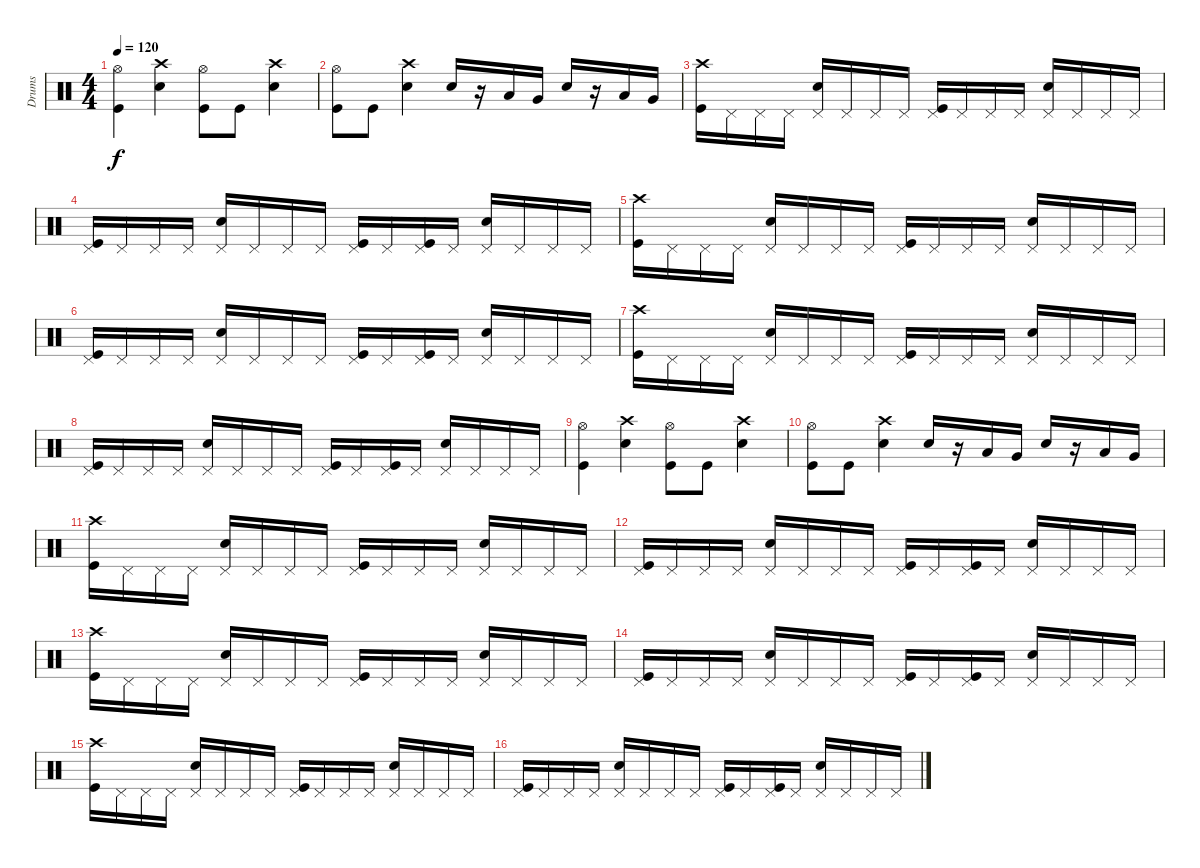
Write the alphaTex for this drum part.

\track ("Drums" "Drums") {instrument percussion}
\staff {score}
\articulation defaults
\ts (4 4)
\tempo 120
\clef neutral
\ks c
("Hi-Hat (open)" "Kick (hit)").4{dy f} ("Crash high (hit)" "Snare (hit) 2").4 ("Hi-Hat (open)" "Kick (hit)").8 "Kick (hit)".8 ("Crash high (hit)" "Snare (hit) 2").4 |
("Hi-Hat (open)" "Kick (hit)").8 "Kick (hit)".8 ("Crash high (hit)" "Snare (hit) 2").4 "Snare (hit) 2".16 r.16 "Low Tom (hit)".16 "Very Low Tom (hit)".16 "Snare (hit) 2".16 r.16 "Low Tom (hit)".16 "Very Low Tom (hit)".16 |
("Crash high (hit)" "Kick (hit)").16 "Pedal Hi-Hat (hit)".16 "Pedal Hi-Hat (hit)".16 "Pedal Hi-Hat (hit)".16 ("Pedal Hi-Hat (hit)" "Snare (hit) 2").16 "Pedal Hi-Hat (hit)".16 "Pedal Hi-Hat (hit)".16 "Pedal Hi-Hat (hit)".16 ("Pedal Hi-Hat (hit)" "Kick (hit)").16 "Pedal Hi-Hat (hit)".16 "Pedal Hi-Hat (hit)".16 "Pedal Hi-Hat (hit)".16 ("Pedal Hi-Hat (hit)" "Snare (hit) 2").16 "Pedal Hi-Hat (hit)".16 "Pedal Hi-Hat (hit)".16 "Pedal Hi-Hat (hit)".16 |
("Pedal Hi-Hat (hit)" "Kick (hit)").16 "Pedal Hi-Hat (hit)".16 "Pedal Hi-Hat (hit)".16 "Pedal Hi-Hat (hit)".16 ("Pedal Hi-Hat (hit)" "Snare (hit) 2").16 "Pedal Hi-Hat (hit)".16 "Pedal Hi-Hat (hit)".16 "Pedal Hi-Hat (hit)".16 ("Pedal Hi-Hat (hit)" "Kick (hit)").16 "Pedal Hi-Hat (hit)".16 ("Pedal Hi-Hat (hit)" "Kick (hit)").16 "Pedal Hi-Hat (hit)".16 ("Pedal Hi-Hat (hit)" "Snare (hit) 2").16 "Pedal Hi-Hat (hit)".16 "Pedal Hi-Hat (hit)".16 "Pedal Hi-Hat (hit)".16 |
("Crash high (hit)" "Kick (hit)").16 "Pedal Hi-Hat (hit)".16 "Pedal Hi-Hat (hit)".16 "Pedal Hi-Hat (hit)".16 ("Pedal Hi-Hat (hit)" "Snare (hit) 2").16 "Pedal Hi-Hat (hit)".16 "Pedal Hi-Hat (hit)".16 "Pedal Hi-Hat (hit)".16 ("Pedal Hi-Hat (hit)" "Kick (hit)").16 "Pedal Hi-Hat (hit)".16 "Pedal Hi-Hat (hit)".16 "Pedal Hi-Hat (hit)".16 ("Pedal Hi-Hat (hit)" "Snare (hit) 2").16 "Pedal Hi-Hat (hit)".16 "Pedal Hi-Hat (hit)".16 "Pedal Hi-Hat (hit)".16 |
("Pedal Hi-Hat (hit)" "Kick (hit)").16 "Pedal Hi-Hat (hit)".16 "Pedal Hi-Hat (hit)".16 "Pedal Hi-Hat (hit)".16 ("Pedal Hi-Hat (hit)" "Snare (hit) 2").16 "Pedal Hi-Hat (hit)".16 "Pedal Hi-Hat (hit)".16 "Pedal Hi-Hat (hit)".16 ("Pedal Hi-Hat (hit)" "Kick (hit)").16 "Pedal Hi-Hat (hit)".16 ("Pedal Hi-Hat (hit)" "Kick (hit)").16 "Pedal Hi-Hat (hit)".16 ("Pedal Hi-Hat (hit)" "Snare (hit) 2").16 "Pedal Hi-Hat (hit)".16 "Pedal Hi-Hat (hit)".16 "Pedal Hi-Hat (hit)".16 |
("Crash high (hit)" "Kick (hit)").16 "Pedal Hi-Hat (hit)".16 "Pedal Hi-Hat (hit)".16 "Pedal Hi-Hat (hit)".16 ("Pedal Hi-Hat (hit)" "Snare (hit) 2").16 "Pedal Hi-Hat (hit)".16 "Pedal Hi-Hat (hit)".16 "Pedal Hi-Hat (hit)".16 ("Pedal Hi-Hat (hit)" "Kick (hit)").16 "Pedal Hi-Hat (hit)".16 "Pedal Hi-Hat (hit)".16 "Pedal Hi-Hat (hit)".16 ("Pedal Hi-Hat (hit)" "Snare (hit) 2").16 "Pedal Hi-Hat (hit)".16 "Pedal Hi-Hat (hit)".16 "Pedal Hi-Hat (hit)".16 |
("Pedal Hi-Hat (hit)" "Kick (hit)").16 "Pedal Hi-Hat (hit)".16 "Pedal Hi-Hat (hit)".16 "Pedal Hi-Hat (hit)".16 ("Pedal Hi-Hat (hit)" "Snare (hit) 2").16 "Pedal Hi-Hat (hit)".16 "Pedal Hi-Hat (hit)".16 "Pedal Hi-Hat (hit)".16 ("Pedal Hi-Hat (hit)" "Kick (hit)").16 "Pedal Hi-Hat (hit)".16 ("Pedal Hi-Hat (hit)" "Kick (hit)").16 "Pedal Hi-Hat (hit)".16 ("Pedal Hi-Hat (hit)" "Snare (hit) 2").16 "Pedal Hi-Hat (hit)".16 "Pedal Hi-Hat (hit)".16 "Pedal Hi-Hat (hit)".16 |
("Hi-Hat (open)" "Kick (hit)").4 ("Crash high (hit)" "Snare (hit) 2").4 ("Hi-Hat (open)" "Kick (hit)").8 "Kick (hit)".8 ("Crash high (hit)" "Snare (hit) 2").4 |
("Hi-Hat (open)" "Kick (hit)").8 "Kick (hit)".8 ("Crash high (hit)" "Snare (hit) 2").4 "Snare (hit) 2".16 r.16 "Low Tom (hit)".16 "Very Low Tom (hit)".16 "Snare (hit) 2".16 r.16 "Low Tom (hit)".16 "Very Low Tom (hit)".16 |
("Crash high (hit)" "Kick (hit)").16 "Pedal Hi-Hat (hit)".16 "Pedal Hi-Hat (hit)".16 "Pedal Hi-Hat (hit)".16 ("Pedal Hi-Hat (hit)" "Snare (hit) 2").16 "Pedal Hi-Hat (hit)".16 "Pedal Hi-Hat (hit)".16 "Pedal Hi-Hat (hit)".16 ("Pedal Hi-Hat (hit)" "Kick (hit)").16 "Pedal Hi-Hat (hit)".16 "Pedal Hi-Hat (hit)".16 "Pedal Hi-Hat (hit)".16 ("Pedal Hi-Hat (hit)" "Snare (hit) 2").16 "Pedal Hi-Hat (hit)".16 "Pedal Hi-Hat (hit)".16 "Pedal Hi-Hat (hit)".16 |
("Pedal Hi-Hat (hit)" "Kick (hit)").16 "Pedal Hi-Hat (hit)".16 "Pedal Hi-Hat (hit)".16 "Pedal Hi-Hat (hit)".16 ("Pedal Hi-Hat (hit)" "Snare (hit) 2").16 "Pedal Hi-Hat (hit)".16 "Pedal Hi-Hat (hit)".16 "Pedal Hi-Hat (hit)".16 ("Pedal Hi-Hat (hit)" "Kick (hit)").16 "Pedal Hi-Hat (hit)".16 ("Pedal Hi-Hat (hit)" "Kick (hit)").16 "Pedal Hi-Hat (hit)".16 ("Pedal Hi-Hat (hit)" "Snare (hit) 2").16 "Pedal Hi-Hat (hit)".16 "Pedal Hi-Hat (hit)".16 "Pedal Hi-Hat (hit)".16 |
("Crash high (hit)" "Kick (hit)").16 "Pedal Hi-Hat (hit)".16 "Pedal Hi-Hat (hit)".16 "Pedal Hi-Hat (hit)".16 ("Pedal Hi-Hat (hit)" "Snare (hit) 2").16 "Pedal Hi-Hat (hit)".16 "Pedal Hi-Hat (hit)".16 "Pedal Hi-Hat (hit)".16 ("Pedal Hi-Hat (hit)" "Kick (hit)").16 "Pedal Hi-Hat (hit)".16 "Pedal Hi-Hat (hit)".16 "Pedal Hi-Hat (hit)".16 ("Pedal Hi-Hat (hit)" "Snare (hit) 2").16 "Pedal Hi-Hat (hit)".16 "Pedal Hi-Hat (hit)".16 "Pedal Hi-Hat (hit)".16 |
("Pedal Hi-Hat (hit)" "Kick (hit)").16 "Pedal Hi-Hat (hit)".16 "Pedal Hi-Hat (hit)".16 "Pedal Hi-Hat (hit)".16 ("Pedal Hi-Hat (hit)" "Snare (hit) 2").16 "Pedal Hi-Hat (hit)".16 "Pedal Hi-Hat (hit)".16 "Pedal Hi-Hat (hit)".16 ("Pedal Hi-Hat (hit)" "Kick (hit)").16 "Pedal Hi-Hat (hit)".16 ("Pedal Hi-Hat (hit)" "Kick (hit)").16 "Pedal Hi-Hat (hit)".16 ("Pedal Hi-Hat (hit)" "Snare (hit) 2").16 "Pedal Hi-Hat (hit)".16 "Pedal Hi-Hat (hit)".16 "Pedal Hi-Hat (hit)".16 |
("Crash high (hit)" "Kick (hit)").16 "Pedal Hi-Hat (hit)".16 "Pedal Hi-Hat (hit)".16 "Pedal Hi-Hat (hit)".16 ("Pedal Hi-Hat (hit)" "Snare (hit) 2").16 "Pedal Hi-Hat (hit)".16 "Pedal Hi-Hat (hit)".16 "Pedal Hi-Hat (hit)".16 ("Pedal Hi-Hat (hit)" "Kick (hit)").16 "Pedal Hi-Hat (hit)".16 "Pedal Hi-Hat (hit)".16 "Pedal Hi-Hat (hit)".16 ("Pedal Hi-Hat (hit)" "Snare (hit) 2").16 "Pedal Hi-Hat (hit)".16 "Pedal Hi-Hat (hit)".16 "Pedal Hi-Hat (hit)".16 |
("Pedal Hi-Hat (hit)" "Kick (hit)").16 "Pedal Hi-Hat (hit)".16 "Pedal Hi-Hat (hit)".16 "Pedal Hi-Hat (hit)".16 ("Pedal Hi-Hat (hit)" "Snare (hit) 2").16 "Pedal Hi-Hat (hit)".16 "Pedal Hi-Hat (hit)".16 "Pedal Hi-Hat (hit)".16 ("Pedal Hi-Hat (hit)" "Kick (hit)").16 "Pedal Hi-Hat (hit)".16 ("Pedal Hi-Hat (hit)" "Kick (hit)").16 "Pedal Hi-Hat (hit)".16 ("Pedal Hi-Hat (hit)" "Snare (hit) 2").16 "Pedal Hi-Hat (hit)".16 "Pedal Hi-Hat (hit)".16 "Pedal Hi-Hat (hit)".16
